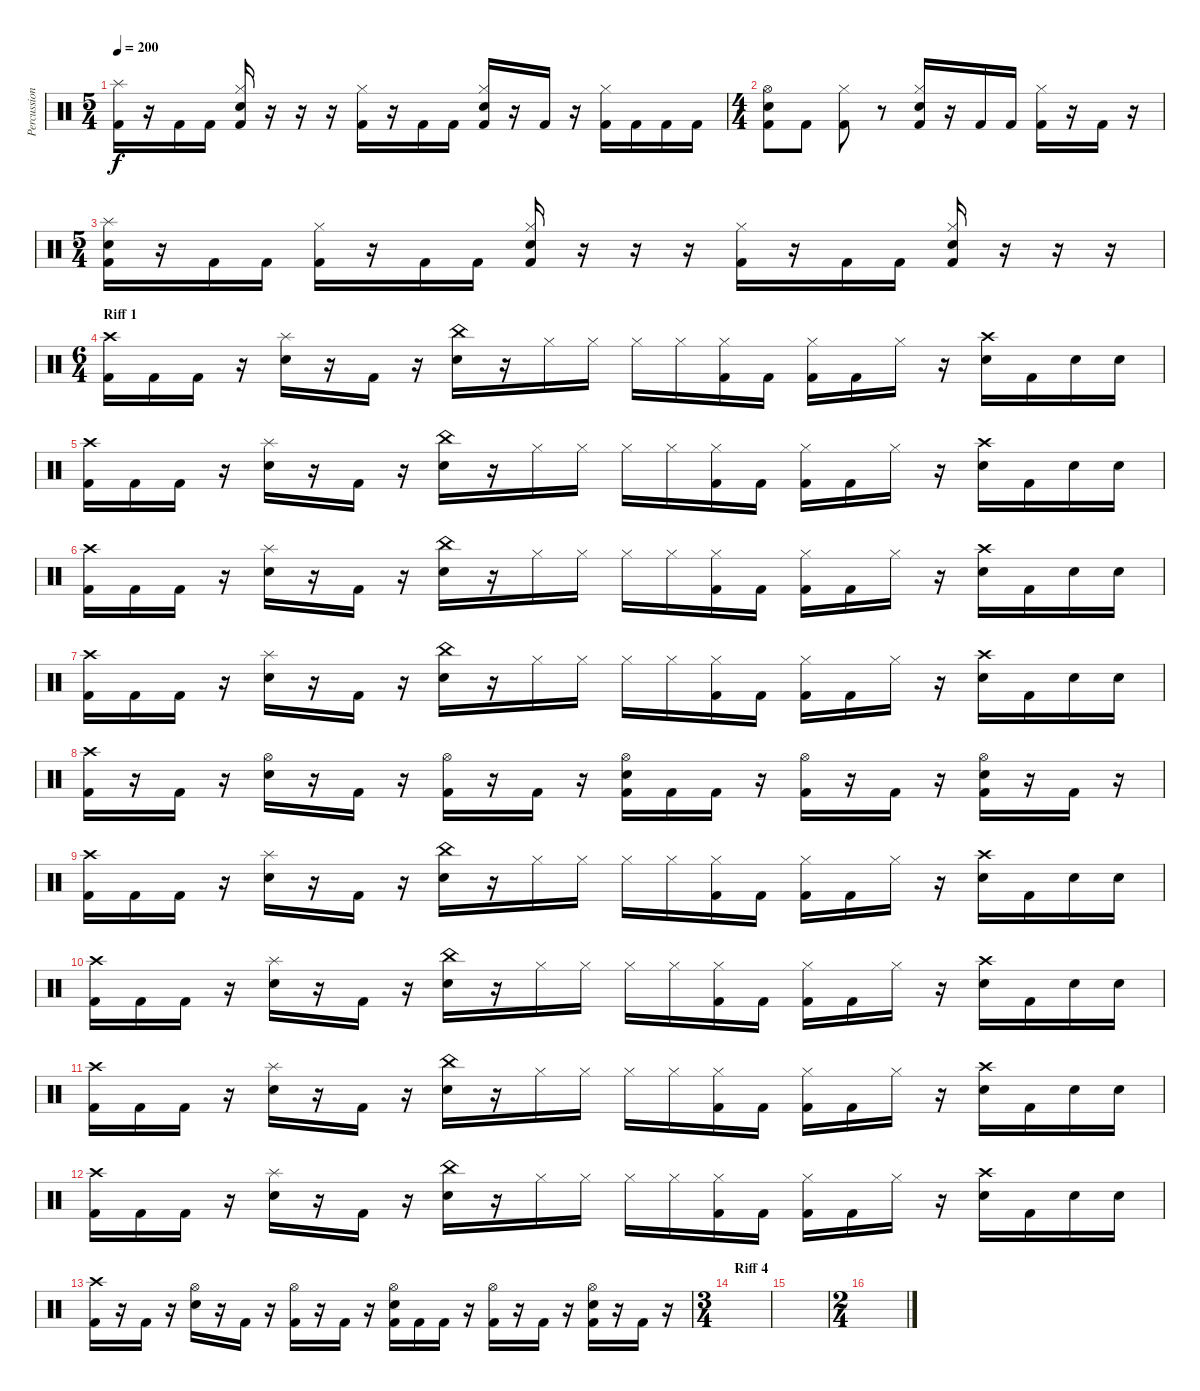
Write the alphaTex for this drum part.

\track ("Percussion" "Percussion") {instrument percussion}
\staff {score}
\articulation defaults
\ts (5 4)
\tempo 200
\clef neutral
\ks c
("Splash (hit)" "Kick (hit) 2").16{dy f} r.16 "Kick (hit) 2".16 "Kick (hit) 2".16 ("Hi-Hat (closed)" "Electric Snare (hit)" "Kick (hit) 2").16 r.16 r.16 r.16 ("Hi-Hat (closed)" "Kick (hit) 2").16 r.16 "Kick (hit) 2".16 "Kick (hit) 2".16 ("Hi-Hat (closed)" "Electric Snare (hit)" "Kick (hit) 2").16 r.16 "Kick (hit) 2".16 r.16 ("Hi-Hat (closed)" "Kick (hit) 2").16 "Kick (hit) 2".16 "Kick (hit) 2".16 "Kick (hit) 2".16 |
\ts (4 4)
("Hi-Hat (open)" "Electric Snare (hit)" "Kick (hit) 2").8 "Kick (hit) 2".8 ("Hi-Hat (closed)" "Kick (hit) 2").8 r.8 ("Hi-Hat (closed)" "Electric Snare (hit)" "Kick (hit) 2").16 r.16 "Kick (hit) 2".16 "Kick (hit) 2".16 ("Hi-Hat (closed)" "Kick (hit) 2").16 r.16 "Kick (hit) 2".16 r.16 |
\ts (5 4)
("Splash (hit)" "Electric Snare (hit)" "Kick (hit) 2").16 r.16 "Kick (hit) 2".16 "Kick (hit) 2".16 ("Hi-Hat (closed)" "Kick (hit) 2").16 r.16 "Kick (hit) 2".16 "Kick (hit) 2".16 ("Hi-Hat (closed)" "Electric Snare (hit)" "Kick (hit) 2").16 r.16 r.16 r.16 ("Hi-Hat (closed)" "Kick (hit) 2").16 r.16 "Kick (hit) 2".16 "Kick (hit) 2".16 ("Hi-Hat (closed)" "Electric Snare (hit)" "Kick (hit) 2").16 r.16 r.16 r.16 |
\ts (6 4)
\section ("" "Riff 1")
("Crash high (hit)" "Kick (hit) 2").16 "Kick (hit) 2".16 "Kick (hit) 2".16 r.16 ("Splash (hit)" "Electric Snare (hit)").16 r.16 "Kick (hit) 2".16 r.16 ("China (hit)" "Electric Snare (hit)").16 r.16 "Hi-Hat (closed)".16 "Hi-Hat (closed)".16 "Hi-Hat (closed)".16 "Hi-Hat (closed)".16 ("Hi-Hat (closed)" "Kick (hit) 2").16 "Kick (hit) 2".16 ("Hi-Hat (closed)" "Kick (hit) 2").16 "Kick (hit) 2".16 "Hi-Hat (closed)".16 r.16 ("Crash high (hit)" "Electric Snare (hit)").16 "Kick (hit) 2".16 "Electric Snare (hit)".16 "Electric Snare (hit)".16 |
("Crash high (hit)" "Kick (hit) 2").16 "Kick (hit) 2".16 "Kick (hit) 2".16 r.16 ("Splash (hit)" "Electric Snare (hit)").16 r.16 "Kick (hit) 2".16 r.16 ("China (hit)" "Electric Snare (hit)").16 r.16 "Hi-Hat (closed)".16 "Hi-Hat (closed)".16 "Hi-Hat (closed)".16 "Hi-Hat (closed)".16 ("Hi-Hat (closed)" "Kick (hit) 2").16 "Kick (hit) 2".16 ("Hi-Hat (closed)" "Kick (hit) 2").16 "Kick (hit) 2".16 "Hi-Hat (closed)".16 r.16 ("Crash high (hit)" "Electric Snare (hit)").16 "Kick (hit) 2".16 "Electric Snare (hit)".16 "Electric Snare (hit)".16 |
("Crash high (hit)" "Kick (hit) 2").16 "Kick (hit) 2".16 "Kick (hit) 2".16 r.16 ("Splash (hit)" "Electric Snare (hit)").16 r.16 "Kick (hit) 2".16 r.16 ("China (hit)" "Electric Snare (hit)").16 r.16 "Hi-Hat (closed)".16 "Hi-Hat (closed)".16 "Hi-Hat (closed)".16 "Hi-Hat (closed)".16 ("Hi-Hat (closed)" "Kick (hit) 2").16 "Kick (hit) 2".16 ("Hi-Hat (closed)" "Kick (hit) 2").16 "Kick (hit) 2".16 "Hi-Hat (closed)".16 r.16 ("Crash high (hit)" "Electric Snare (hit)").16 "Kick (hit) 2".16 "Electric Snare (hit)".16 "Electric Snare (hit)".16 |
("Crash high (hit)" "Kick (hit) 2").16 "Kick (hit) 2".16 "Kick (hit) 2".16 r.16 ("Splash (hit)" "Electric Snare (hit)").16 r.16 "Kick (hit) 2".16 r.16 ("China (hit)" "Electric Snare (hit)").16 r.16 "Hi-Hat (closed)".16 "Hi-Hat (closed)".16 "Hi-Hat (closed)".16 "Hi-Hat (closed)".16 ("Hi-Hat (closed)" "Kick (hit) 2").16 "Kick (hit) 2".16 ("Hi-Hat (closed)" "Kick (hit) 2").16 "Kick (hit) 2".16 "Hi-Hat (closed)".16 r.16 ("Crash high (hit)" "Electric Snare (hit)").16 "Kick (hit) 2".16 "Electric Snare (hit)".16 "Electric Snare (hit)".16 |
("Crash high (hit)" "Kick (hit) 2").16 r.16 "Kick (hit) 2".16 r.16 ("Hi-Hat (open)" "Electric Snare (hit)").16 r.16 "Kick (hit) 2".16 r.16 ("Hi-Hat (open)" "Kick (hit) 2").16 r.16 "Kick (hit) 2".16 r.16 ("Hi-Hat (open)" "Electric Snare (hit)" "Kick (hit) 2").16 "Kick (hit) 2".16 "Kick (hit) 2".16 r.16 ("Hi-Hat (open)" "Kick (hit) 2").16 r.16 "Kick (hit) 2".16 r.16 ("Hi-Hat (open)" "Electric Snare (hit)" "Kick (hit) 2").16 r.16 "Kick (hit) 2".16 r.16 |
("Crash high (hit)" "Kick (hit) 2").16 "Kick (hit) 2".16 "Kick (hit) 2".16 r.16 ("Splash (hit)" "Electric Snare (hit)").16 r.16 "Kick (hit) 2".16 r.16 ("China (hit)" "Electric Snare (hit)").16 r.16 "Hi-Hat (closed)".16 "Hi-Hat (closed)".16 "Hi-Hat (closed)".16 "Hi-Hat (closed)".16 ("Hi-Hat (closed)" "Kick (hit) 2").16 "Kick (hit) 2".16 ("Hi-Hat (closed)" "Kick (hit) 2").16 "Kick (hit) 2".16 "Hi-Hat (closed)".16 r.16 ("Crash high (hit)" "Electric Snare (hit)").16 "Kick (hit) 2".16 "Electric Snare (hit)".16 "Electric Snare (hit)".16 |
("Crash high (hit)" "Kick (hit) 2").16 "Kick (hit) 2".16 "Kick (hit) 2".16 r.16 ("Splash (hit)" "Electric Snare (hit)").16 r.16 "Kick (hit) 2".16 r.16 ("China (hit)" "Electric Snare (hit)").16 r.16 "Hi-Hat (closed)".16 "Hi-Hat (closed)".16 "Hi-Hat (closed)".16 "Hi-Hat (closed)".16 ("Hi-Hat (closed)" "Kick (hit) 2").16 "Kick (hit) 2".16 ("Hi-Hat (closed)" "Kick (hit) 2").16 "Kick (hit) 2".16 "Hi-Hat (closed)".16 r.16 ("Crash high (hit)" "Electric Snare (hit)").16 "Kick (hit) 2".16 "Electric Snare (hit)".16 "Electric Snare (hit)".16 |
("Crash high (hit)" "Kick (hit) 2").16 "Kick (hit) 2".16 "Kick (hit) 2".16 r.16 ("Splash (hit)" "Electric Snare (hit)").16 r.16 "Kick (hit) 2".16 r.16 ("China (hit)" "Electric Snare (hit)").16 r.16 "Hi-Hat (closed)".16 "Hi-Hat (closed)".16 "Hi-Hat (closed)".16 "Hi-Hat (closed)".16 ("Hi-Hat (closed)" "Kick (hit) 2").16 "Kick (hit) 2".16 ("Hi-Hat (closed)" "Kick (hit) 2").16 "Kick (hit) 2".16 "Hi-Hat (closed)".16 r.16 ("Crash high (hit)" "Electric Snare (hit)").16 "Kick (hit) 2".16 "Electric Snare (hit)".16 "Electric Snare (hit)".16 |
("Crash high (hit)" "Kick (hit) 2").16 "Kick (hit) 2".16 "Kick (hit) 2".16 r.16 ("Splash (hit)" "Electric Snare (hit)").16 r.16 "Kick (hit) 2".16 r.16 ("China (hit)" "Electric Snare (hit)").16 r.16 "Hi-Hat (closed)".16 "Hi-Hat (closed)".16 "Hi-Hat (closed)".16 "Hi-Hat (closed)".16 ("Hi-Hat (closed)" "Kick (hit) 2").16 "Kick (hit) 2".16 ("Hi-Hat (closed)" "Kick (hit) 2").16 "Kick (hit) 2".16 "Hi-Hat (closed)".16 r.16 ("Crash high (hit)" "Electric Snare (hit)").16 "Kick (hit) 2".16 "Electric Snare (hit)".16 "Electric Snare (hit)".16 |
("Crash high (hit)" "Kick (hit) 2").16 r.16 "Kick (hit) 2".16 r.16 ("Hi-Hat (open)" "Electric Snare (hit)").16 r.16 "Kick (hit) 2".16 r.16 ("Hi-Hat (open)" "Kick (hit) 2").16 r.16 "Kick (hit) 2".16 r.16 ("Hi-Hat (open)" "Electric Snare (hit)" "Kick (hit) 2").16 "Kick (hit) 2".16 "Kick (hit) 2".16 r.16 ("Hi-Hat (open)" "Kick (hit) 2").16 r.16 "Kick (hit) 2".16 r.16 ("Hi-Hat (open)" "Electric Snare (hit)" "Kick (hit) 2").16 r.16 "Kick (hit) 2".16 r.16 |
\ts (3 4)
\section ("" "Riff 4")
|
|
\ts (2 4)
